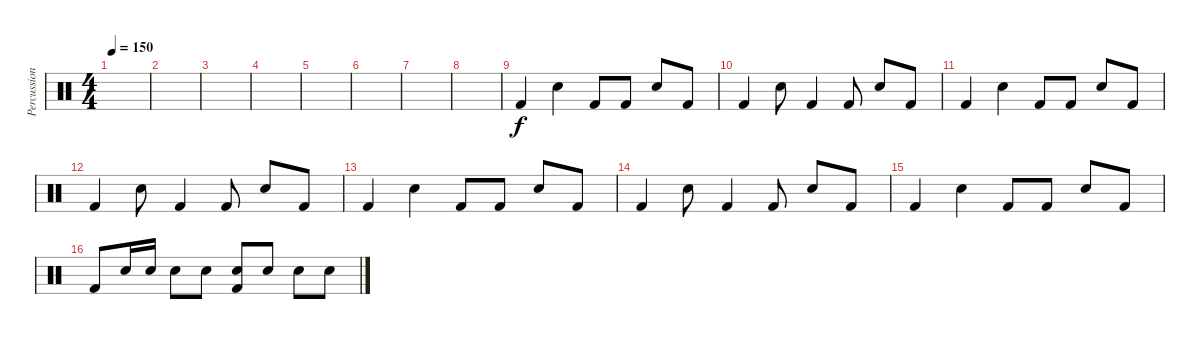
\track ("Percussion" "Percussion") {instrument percussion}
\staff {score}
\articulation defaults
\ts (4 4)
\tempo 150
\clef neutral
\ks c
|
|
|
|
|
|
|
|
"Kick (hit) 2".4 "Snare (hit) 2".4 "Kick (hit) 2".8 "Kick (hit) 2".8 "Snare (hit) 2".8 "Kick (hit) 2".8 |
"Kick (hit) 2".4 "Snare (hit) 2".8 "Kick (hit) 2".4 "Kick (hit) 2".8 "Snare (hit) 2".8 "Kick (hit) 2".8 |
"Kick (hit) 2".4 "Snare (hit) 2".4 "Kick (hit) 2".8 "Kick (hit) 2".8 "Snare (hit) 2".8 "Kick (hit) 2".8 |
"Kick (hit) 2".4 "Snare (hit) 2".8 "Kick (hit) 2".4 "Kick (hit) 2".8 "Snare (hit) 2".8 "Kick (hit) 2".8 |
"Kick (hit) 2".4 "Snare (hit) 2".4 "Kick (hit) 2".8 "Kick (hit) 2".8 "Snare (hit) 2".8 "Kick (hit) 2".8 |
"Kick (hit) 2".4 "Snare (hit) 2".8 "Kick (hit) 2".4 "Kick (hit) 2".8 "Snare (hit) 2".8 "Kick (hit) 2".8 |
"Kick (hit) 2".4 "Snare (hit) 2".4 "Kick (hit) 2".8 "Kick (hit) 2".8 "Snare (hit) 2".8 "Kick (hit) 2".8 |
"Kick (hit) 2".8 "Snare (hit) 2".16 "Snare (hit) 2".16 "Snare (hit) 2".8 "Snare (hit) 2".8 ("Snare (hit) 2" "Kick (hit) 2").8 "Snare (hit) 2".8 "Snare (hit) 2".8 "Snare (hit) 2".8
